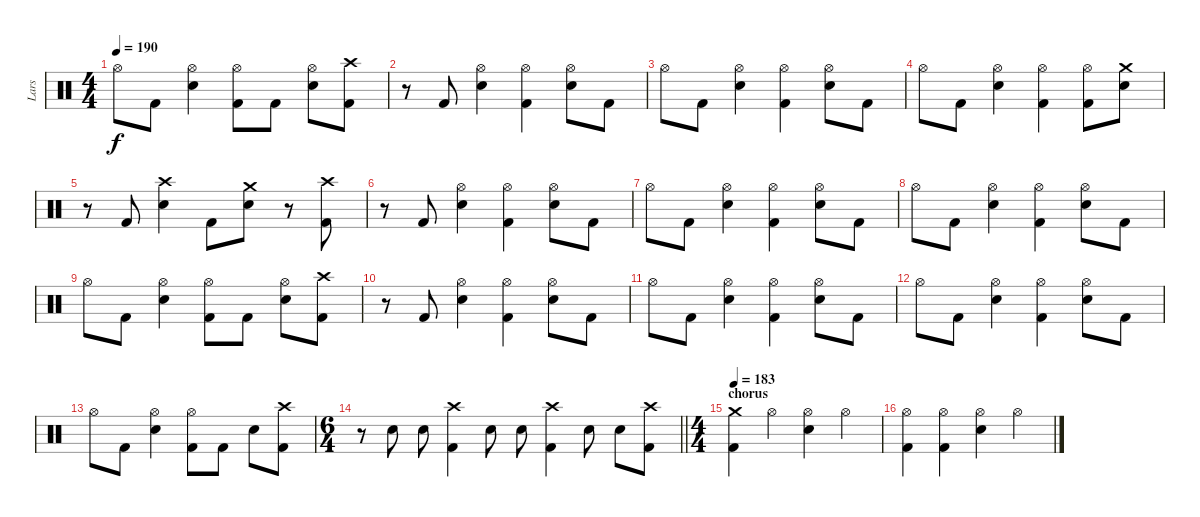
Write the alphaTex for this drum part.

\track ("Lars" "Lars") {instrument percussion}
\staff {score}
\articulation defaults
\ts (4 4)
\tempo 190
\clef neutral
\ks c "Hi-Hat (open)".8{dy f} "Kick (hit) 2".8
("Hi-Hat (open)" "Snare (hit) 2").4 ("Hi-Hat (open)" "Kick (hit) 2").8 "Kick (hit) 2".8 ("Hi-Hat (open)" "Snare (hit) 2").8 ("Crash high (hit)" "Kick (hit) 2").8 |
r.8 "Kick (hit) 2".8 ("Hi-Hat (open)" "Snare (hit) 2").4 ("Hi-Hat (open)" "Kick (hit) 2").4 ("Hi-Hat (open)" "Snare (hit) 2").8 "Kick (hit) 2".8 |
"Hi-Hat (open)".8 "Kick (hit) 2".8 ("Hi-Hat (open)" "Snare (hit) 2").4 ("Hi-Hat (open)" "Kick (hit) 2").4 ("Hi-Hat (open)" "Snare (hit) 2").8 "Kick (hit) 2".8 |
"Hi-Hat (open)".8 "Kick (hit) 2".8 ("Hi-Hat (open)" "Snare (hit) 2").4 ("Hi-Hat (open)" "Kick (hit) 2").4 ("Hi-Hat (open)" "Kick (hit) 2").8 ("Crash medium (hit)" "Snare (hit) 2").8 |
r.8 "Kick (hit) 2".8 ("Crash high (hit)" "Snare (hit) 2").4 "Kick (hit) 2".8 ("Crash medium (hit)" "Snare (hit) 2").8 r.8 ("Crash high (hit)" "Kick (hit) 2").8 |
r.8 "Kick (hit) 2".8 ("Hi-Hat (open)" "Snare (hit) 2").4 ("Hi-Hat (open)" "Kick (hit) 2").4 ("Hi-Hat (open)" "Snare (hit) 2").8 "Kick (hit) 2".8 |
"Hi-Hat (open)".8 "Kick (hit) 2".8 ("Hi-Hat (open)" "Snare (hit) 2").4 ("Hi-Hat (open)" "Kick (hit) 2").4 ("Hi-Hat (open)" "Snare (hit) 2").8 "Kick (hit) 2".8 |
"Hi-Hat (open)".8 "Kick (hit) 2".8 ("Hi-Hat (open)" "Snare (hit) 2").4 ("Hi-Hat (open)" "Kick (hit) 2").4 ("Hi-Hat (open)" "Snare (hit) 2").8 "Kick (hit) 2".8 |
"Hi-Hat (open)".8 "Kick (hit) 2".8 ("Hi-Hat (open)" "Snare (hit) 2").4 ("Hi-Hat (open)" "Kick (hit) 2").8 "Kick (hit) 2".8 ("Hi-Hat (open)" "Snare (hit) 2").8 ("Crash high (hit)" "Kick (hit) 2").8 |
r.8 "Kick (hit) 2".8 ("Hi-Hat (open)" "Snare (hit) 2").4 ("Hi-Hat (open)" "Kick (hit) 2").4 ("Hi-Hat (open)" "Snare (hit) 2").8 "Kick (hit) 2".8 |
"Hi-Hat (open)".8 "Kick (hit) 2".8 ("Hi-Hat (open)" "Snare (hit) 2").4 ("Hi-Hat (open)" "Kick (hit) 2").4 ("Hi-Hat (open)" "Snare (hit) 2").8 "Kick (hit) 2".8 |
"Hi-Hat (open)".8 "Kick (hit) 2".8 ("Hi-Hat (open)" "Snare (hit) 2").4 ("Hi-Hat (open)" "Kick (hit) 2").4 ("Hi-Hat (open)" "Snare (hit) 2").8 "Kick (hit) 2".8 |
"Hi-Hat (open)".8 "Kick (hit) 2".8 ("Hi-Hat (open)" "Snare (hit) 2").4 ("Hi-Hat (open)" "Kick (hit) 2").8 "Kick (hit) 2".8 "Snare (hit) 2".8 ("Crash high (hit)" "Kick (hit) 2").8 |
\ts (6 4)
\barLineRight lightlight
r.8 "Snare (hit) 2".8 "Snare (hit) 2".8 ("Crash high (hit)" "Kick (hit) 2").4 "Snare (hit) 2".8 "Snare (hit) 2".8 ("Crash high (hit)" "Kick (hit) 2").4 "Snare (hit) 2".8 "Snare (hit) 2".8 ("Crash high (hit)" "Kick (hit) 2").8 |
\ts (4 4)
\section ("" "chorus")
\tempo 183
("Crash medium (hit)" "Kick (hit) 2").4 "Hi-Hat (open)".4 ("Hi-Hat (open)" "Snare (hit) 2").4 "Hi-Hat (open)".4 |
("Hi-Hat (open)" "Kick (hit) 2").4 ("Hi-Hat (open)" "Kick (hit) 2").4 ("Hi-Hat (open)" "Snare (hit) 2").4 "Hi-Hat (open)".4
